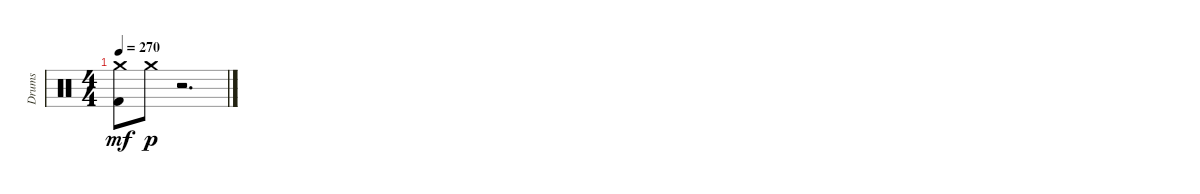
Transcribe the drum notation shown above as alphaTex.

\track ("Drums" "Drums") {instrument percussion}
\staff {score}
\articulation defaults
\ts (4 4)
\tempo 270
\clef neutral
\ks c
("Crash medium (hit)" "Kick (hit) 2").8{dy mf} "Crash medium (hit)".8{dy p} r.2{d}
